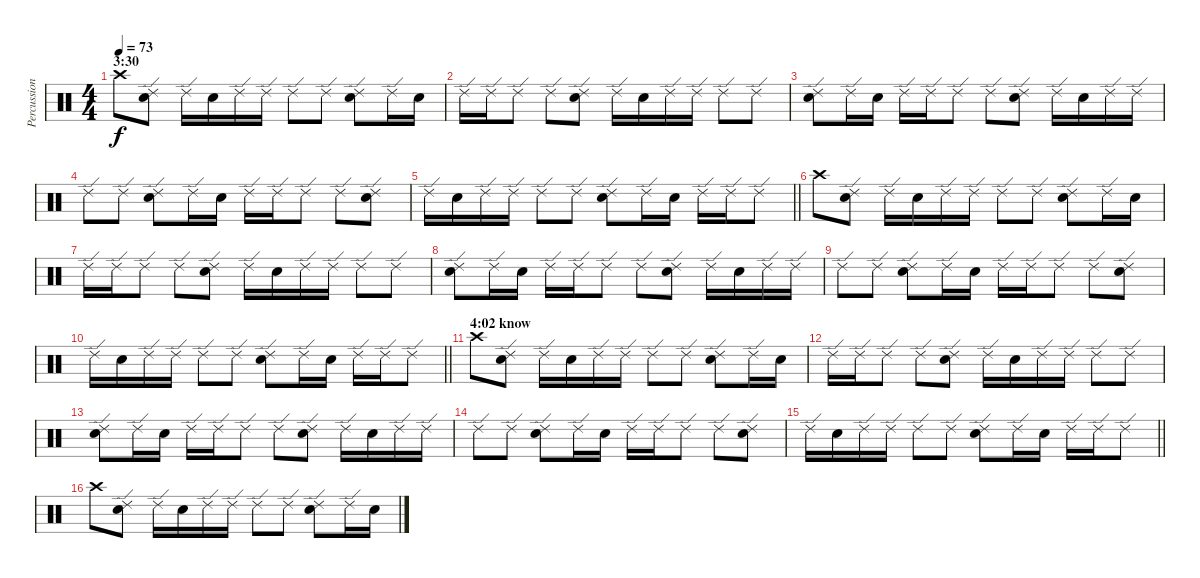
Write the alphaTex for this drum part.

\track ("Percussion" "Percussion") {instrument percussion}
\staff {score}
\articulation defaults
\ts (4 4)
\section ("" "3:30")
\tempo 73
\clef neutral
\ks c "Crash high (hit)".8{dy f}
("Ride (edge) 2" "Electric Snare (hit)").8 "Ride (edge) 2".16 "Electric Snare (hit)".16 "Ride (edge) 2".16 "Ride (edge) 2".16 "Ride (edge) 2".8 "Ride (edge) 2".8 ("Ride (edge) 2" "Electric Snare (hit)").8 "Ride (edge) 2".16 "Electric Snare (hit)".16 |
"Ride (edge) 2".16 "Ride (edge) 2".16 "Ride (edge) 2".8 "Ride (edge) 2".8 ("Ride (edge) 2" "Electric Snare (hit)").8 "Ride (edge) 2".16 "Electric Snare (hit)".16 "Ride (edge) 2".16 "Ride (edge) 2".16 "Ride (edge) 2".8 "Ride (edge) 2".8 |
("Ride (edge) 2" "Electric Snare (hit)").8 "Ride (edge) 2".16 "Electric Snare (hit)".16 "Ride (edge) 2".16 "Ride (edge) 2".16 "Ride (edge) 2".8 "Ride (edge) 2".8 ("Ride (edge) 2" "Electric Snare (hit)").8 "Ride (edge) 2".16 "Electric Snare (hit)".16 "Ride (edge) 2".16 "Ride (edge) 2".16 |
"Ride (edge) 2".8 "Ride (edge) 2".8 ("Ride (edge) 2" "Electric Snare (hit)").8 "Ride (edge) 2".16 "Electric Snare (hit)".16 "Ride (edge) 2".16 "Ride (edge) 2".16 "Ride (edge) 2".8 "Ride (edge) 2".8 ("Ride (edge) 2" "Electric Snare (hit)").8 |
\barLineRight lightlight "Ride (edge) 2".16 "Electric Snare (hit)".16 "Ride (edge) 2".16 "Ride (edge) 2".16 "Ride (edge) 2".8 "Ride (edge) 2".8
("Ride (edge) 2" "Electric Snare (hit)").8 "Ride (edge) 2".16 "Electric Snare (hit)".16 "Ride (edge) 2".16 "Ride (edge) 2".16 "Ride (edge) 2".8 |
"Crash high (hit)".8 ("Ride (edge) 2" "Electric Snare (hit)").8 "Ride (edge) 2".16 "Electric Snare (hit)".16 "Ride (edge) 2".16 "Ride (edge) 2".16 "Ride (edge) 2".8 "Ride (edge) 2".8 ("Ride (edge) 2" "Electric Snare (hit)").8 "Ride (edge) 2".16 "Electric Snare (hit)".16 |
"Ride (edge) 2".16 "Ride (edge) 2".16 "Ride (edge) 2".8 "Ride (edge) 2".8 ("Ride (edge) 2" "Electric Snare (hit)").8 "Ride (edge) 2".16 "Electric Snare (hit)".16 "Ride (edge) 2".16 "Ride (edge) 2".16 "Ride (edge) 2".8 "Ride (edge) 2".8 |
("Ride (edge) 2" "Electric Snare (hit)").8 "Ride (edge) 2".16 "Electric Snare (hit)".16 "Ride (edge) 2".16 "Ride (edge) 2".16 "Ride (edge) 2".8 "Ride (edge) 2".8 ("Ride (edge) 2" "Electric Snare (hit)").8 "Ride (edge) 2".16 "Electric Snare (hit)".16 "Ride (edge) 2".16 "Ride (edge) 2".16 |
"Ride (edge) 2".8 "Ride (edge) 2".8 ("Ride (edge) 2" "Electric Snare (hit)").8 "Ride (edge) 2".16 "Electric Snare (hit)".16 "Ride (edge) 2".16 "Ride (edge) 2".16 "Ride (edge) 2".8 "Ride (edge) 2".8 ("Ride (edge) 2" "Electric Snare (hit)").8 |
\barLineRight lightlight "Ride (edge) 2".16 "Electric Snare (hit)".16 "Ride (edge) 2".16 "Ride (edge) 2".16 "Ride (edge) 2".8 "Ride (edge) 2".8
("Ride (edge) 2" "Electric Snare (hit)").8 "Ride (edge) 2".16 "Electric Snare (hit)".16 "Ride (edge) 2".16 "Ride (edge) 2".16 "Ride (edge) 2".8 |
\section ("" "4:02 know")
"Crash high (hit)".8 ("Ride (edge) 2" "Electric Snare (hit)").8 "Ride (edge) 2".16 "Electric Snare (hit)".16 "Ride (edge) 2".16 "Ride (edge) 2".16 "Ride (edge) 2".8 "Ride (edge) 2".8 ("Ride (edge) 2" "Electric Snare (hit)").8 "Ride (edge) 2".16 "Electric Snare (hit)".16 |
"Ride (edge) 2".16 "Ride (edge) 2".16 "Ride (edge) 2".8 "Ride (edge) 2".8 ("Ride (edge) 2" "Electric Snare (hit)").8 "Ride (edge) 2".16 "Electric Snare (hit)".16 "Ride (edge) 2".16 "Ride (edge) 2".16 "Ride (edge) 2".8 "Ride (edge) 2".8 |
("Ride (edge) 2" "Electric Snare (hit)").8 "Ride (edge) 2".16 "Electric Snare (hit)".16 "Ride (edge) 2".16 "Ride (edge) 2".16 "Ride (edge) 2".8 "Ride (edge) 2".8 ("Ride (edge) 2" "Electric Snare (hit)").8 "Ride (edge) 2".16 "Electric Snare (hit)".16 "Ride (edge) 2".16 "Ride (edge) 2".16 |
"Ride (edge) 2".8 "Ride (edge) 2".8 ("Ride (edge) 2" "Electric Snare (hit)").8 "Ride (edge) 2".16 "Electric Snare (hit)".16 "Ride (edge) 2".16 "Ride (edge) 2".16 "Ride (edge) 2".8 "Ride (edge) 2".8 ("Ride (edge) 2" "Electric Snare (hit)").8 |
\barLineRight lightlight "Ride (edge) 2".16 "Electric Snare (hit)".16 "Ride (edge) 2".16 "Ride (edge) 2".16 "Ride (edge) 2".8 "Ride (edge) 2".8
("Ride (edge) 2" "Electric Snare (hit)").8 "Ride (edge) 2".16 "Electric Snare (hit)".16 "Ride (edge) 2".16 "Ride (edge) 2".16 "Ride (edge) 2".8 |
"Crash high (hit)".8 ("Ride (edge) 2" "Electric Snare (hit)").8 "Ride (edge) 2".16 "Electric Snare (hit)".16 "Ride (edge) 2".16 "Ride (edge) 2".16 "Ride (edge) 2".8 "Ride (edge) 2".8 ("Ride (edge) 2" "Electric Snare (hit)").8 "Ride (edge) 2".16 "Electric Snare (hit)".16
